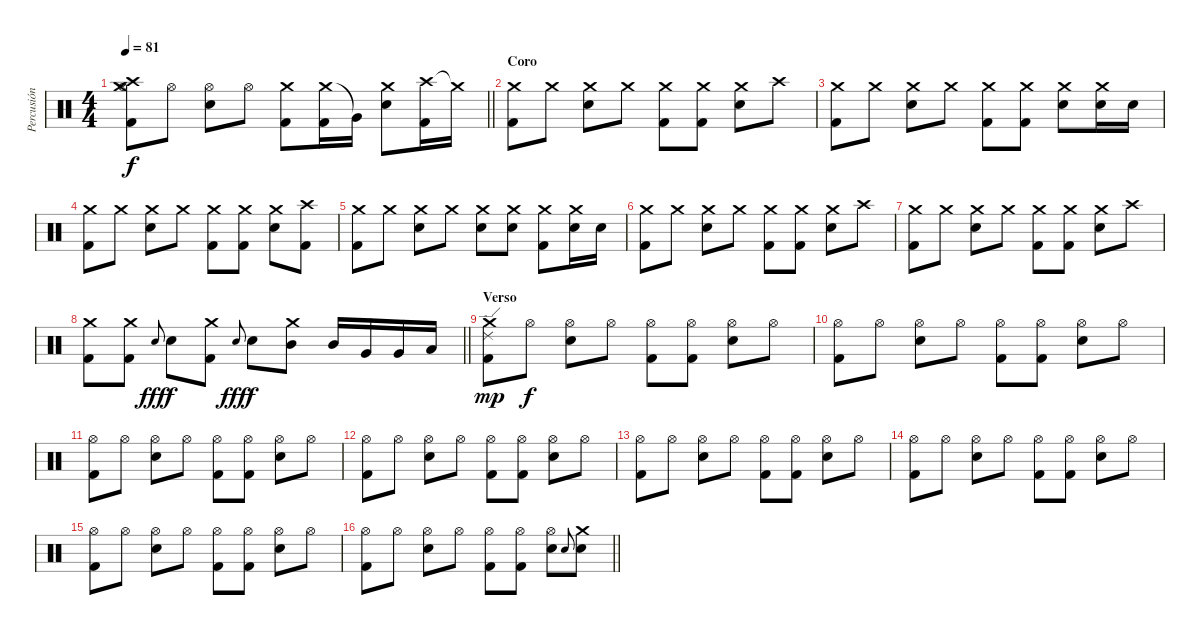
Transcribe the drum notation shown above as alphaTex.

\track ("Percusión" "Percusión") {instrument percussion}
\staff {score}
\articulation defaults
\ts (4 4)
\tempo 81
\clef neutral
\barLineRight lightlight
\ks c
("Crash medium (hit)" "Hi-Hat (open)" "Crash high (hit)" "Kick (hit) 2").8{dy f} "Hi-Hat (open)".8 ("Hi-Hat (open)" "Electric Snare (hit)").8 "Hi-Hat (open)".8 ("Crash medium (hit)" "Kick (hit) 2").8 ("Crash medium (hit)" "Kick (hit) 2").16 "Very Low Tom (hit)"{t}.16 ("Crash medium (hit)" "Electric Snare (hit)").8 ("Crash high (hit)" "Kick (hit) 2").16 "Crash medium (hit)"{t}.16 |
\section ("" "Coro")
("Crash medium (hit)" "Kick (hit) 2").8 "Crash medium (hit)".8 ("Crash medium (hit)" "Electric Snare (hit)").8 "Crash medium (hit)".8 ("Crash medium (hit)" "Kick (hit) 2").8 ("Crash medium (hit)" "Kick (hit) 2").8 ("Crash medium (hit)" "Electric Snare (hit)").8 "Crash high (hit)".8 |
("Crash medium (hit)" "Kick (hit) 2").8 "Crash medium (hit)".8 ("Crash medium (hit)" "Electric Snare (hit)").8 "Crash medium (hit)".8 ("Crash medium (hit)" "Kick (hit) 2").8 ("Crash medium (hit)" "Kick (hit) 2").8 ("Crash medium (hit)" "Electric Snare (hit)").8 ("Crash medium (hit)" "Electric Snare (hit)").16 "Electric Snare (hit)".16 |
("Crash medium (hit)" "Kick (hit) 2").8 "Crash medium (hit)".8 ("Crash medium (hit)" "Electric Snare (hit)").8 "Crash medium (hit)".8 ("Crash medium (hit)" "Kick (hit) 2").8 ("Crash medium (hit)" "Kick (hit) 2").8 ("Crash medium (hit)" "Electric Snare (hit)").8 ("Crash high (hit)" "Kick (hit) 2").8 |
("Crash medium (hit)" "Kick (hit) 2").8 "Crash medium (hit)".8 ("Crash medium (hit)" "Electric Snare (hit)").8 "Crash medium (hit)".8 ("Crash medium (hit)" "Electric Snare (hit)").8 ("Crash medium (hit)" "Electric Snare (hit)").8 ("Crash medium (hit)" "Kick (hit) 2").8 ("Crash medium (hit)" "Electric Snare (hit)").16 "Electric Snare (hit)".16 |
("Crash medium (hit)" "Kick (hit) 2").8 "Crash medium (hit)".8 ("Crash medium (hit)" "Electric Snare (hit)").8 "Crash medium (hit)".8 ("Crash medium (hit)" "Kick (hit) 2").8 ("Crash medium (hit)" "Kick (hit) 2").8 ("Crash medium (hit)" "Electric Snare (hit)").8 "Crash high (hit)".8 |
("Crash medium (hit)" "Kick (hit) 2").8 "Crash medium (hit)".8 ("Crash medium (hit)" "Electric Snare (hit)").8 "Crash medium (hit)".8 ("Crash medium (hit)" "Kick (hit) 2").8 ("Crash medium (hit)" "Kick (hit) 2").8 ("Crash medium (hit)" "Electric Snare (hit)").8 "Crash high (hit)".8 |
\barLineRight lightlight
("Crash medium (hit)" "Kick (hit) 2").8 ("Crash medium (hit)" "Kick (hit) 2").8 "Electric Snare (hit)".8{gr onbeat dy fff} "Electric Snare (hit)".8{dy f} ("Crash medium (hit)" "Kick (hit) 2").8 "Electric Snare (hit)".8{gr onbeat dy fff} "Electric Snare (hit)".8{dy f} ("Crash medium (hit)" "Mid Tom (hit)").8 "Mid Tom (hit)".16 "Very Low Tom (hit)".16 "Very Low Tom (hit)".16 "Low Floor Tom (hit)".16 |
\section ("" "Verso")
("Ride (edge) 2" "Crash medium (hit)" "Kick (hit) 2").8{dy mp} "Hi-Hat (open)".8{dy f} ("Hi-Hat (open)" "Electric Snare (hit)").8 "Hi-Hat (open)".8 ("Hi-Hat (open)" "Kick (hit) 2").8 ("Hi-Hat (open)" "Kick (hit) 2").8 ("Hi-Hat (open)" "Electric Snare (hit)").8 "Hi-Hat (open)".8 |
("Hi-Hat (open)" "Kick (hit) 2").8 "Hi-Hat (open)".8 ("Hi-Hat (open)" "Electric Snare (hit)").8 "Hi-Hat (open)".8 ("Hi-Hat (open)" "Kick (hit) 2").8 ("Hi-Hat (open)" "Kick (hit) 2").8 ("Hi-Hat (open)" "Electric Snare (hit)").8 "Hi-Hat (open)".8 |
("Hi-Hat (open)" "Kick (hit) 2").8 "Hi-Hat (open)".8 ("Hi-Hat (open)" "Electric Snare (hit)").8 "Hi-Hat (open)".8 ("Hi-Hat (open)" "Kick (hit) 2").8 ("Hi-Hat (open)" "Kick (hit) 2").8 ("Hi-Hat (open)" "Electric Snare (hit)").8 "Hi-Hat (open)".8 |
("Hi-Hat (open)" "Kick (hit) 2").8 "Hi-Hat (open)".8 ("Hi-Hat (open)" "Electric Snare (hit)").8 "Hi-Hat (open)".8 ("Hi-Hat (open)" "Kick (hit) 2").8 ("Hi-Hat (open)" "Kick (hit) 2").8 ("Hi-Hat (open)" "Electric Snare (hit)").8 "Hi-Hat (open)".8 |
("Hi-Hat (open)" "Kick (hit) 2").8 "Hi-Hat (open)".8 ("Hi-Hat (open)" "Electric Snare (hit)").8 "Hi-Hat (open)".8 ("Hi-Hat (open)" "Kick (hit) 2").8 ("Hi-Hat (open)" "Kick (hit) 2").8 ("Hi-Hat (open)" "Electric Snare (hit)").8 "Hi-Hat (open)".8 |
("Hi-Hat (open)" "Kick (hit) 2").8 "Hi-Hat (open)".8 ("Hi-Hat (open)" "Electric Snare (hit)").8 "Hi-Hat (open)".8 ("Hi-Hat (open)" "Kick (hit) 2").8 ("Hi-Hat (open)" "Kick (hit) 2").8 ("Hi-Hat (open)" "Electric Snare (hit)").8 "Hi-Hat (open)".8 |
("Hi-Hat (open)" "Kick (hit) 2").8 "Hi-Hat (open)".8 ("Hi-Hat (open)" "Electric Snare (hit)").8 "Hi-Hat (open)".8 ("Hi-Hat (open)" "Kick (hit) 2").8 ("Hi-Hat (open)" "Kick (hit) 2").8 ("Hi-Hat (open)" "Electric Snare (hit)").8 "Hi-Hat (open)".8 |
\barLineRight lightlight
("Hi-Hat (open)" "Kick (hit) 2").8 "Hi-Hat (open)".8 ("Hi-Hat (open)" "Electric Snare (hit)").8 "Hi-Hat (open)".8 ("Hi-Hat (open)" "Kick (hit) 2").8 ("Hi-Hat (open)" "Kick (hit) 2").8 ("Hi-Hat (open)" "Electric Snare (hit)").8 "Electric Snare (hit)".8{gr onbeat} ("Crash medium (hit)" "Electric Snare (hit)").8
